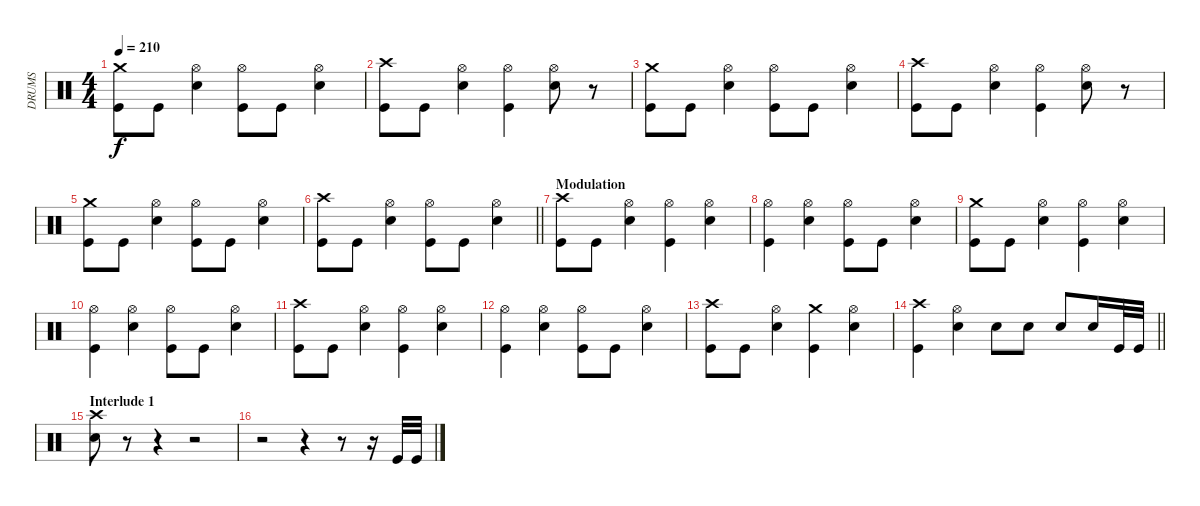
\track ("DRUMS" "DRUMS") {instrument percussion}
\staff {score}
\articulation defaults
\ts (4 4)
\tempo 210
\clef neutral
\ks c
("Crash medium (hit)" "Kick (hit)").8{dy f} "Kick (hit)".8 ("Hi-Hat (open)" "Snare (hit) 2").4 ("Hi-Hat (open)" "Kick (hit)").8 "Kick (hit)".8 ("Hi-Hat (open)" "Snare (hit) 2").4 |
("Crash high (hit)" "Kick (hit)").8 "Kick (hit)".8 ("Hi-Hat (open)" "Snare (hit) 2").4 ("Hi-Hat (open)" "Kick (hit)").4 ("Hi-Hat (open)" "Snare (hit) 2").8 r.8 |
("Crash medium (hit)" "Kick (hit)").8 "Kick (hit)".8 ("Hi-Hat (open)" "Snare (hit) 2").4 ("Hi-Hat (open)" "Kick (hit)").8 "Kick (hit)".8 ("Hi-Hat (open)" "Snare (hit) 2").4 |
("Crash high (hit)" "Kick (hit)").8 "Kick (hit)".8 ("Hi-Hat (open)" "Snare (hit) 2").4 ("Hi-Hat (open)" "Kick (hit)").4 ("Hi-Hat (open)" "Snare (hit) 2").8 r.8 |
("Crash medium (hit)" "Kick (hit)").8 "Kick (hit)".8 ("Hi-Hat (open)" "Snare (hit) 2").4 ("Hi-Hat (open)" "Kick (hit)").8 "Kick (hit)".8 ("Hi-Hat (open)" "Snare (hit) 2").4 |
\barLineRight lightlight
("Crash high (hit)" "Kick (hit)").8 "Kick (hit)".8 ("Hi-Hat (open)" "Snare (hit) 2").4 ("Hi-Hat (open)" "Kick (hit)").8 "Kick (hit)".8 ("Hi-Hat (open)" "Snare (hit) 2").4 |
\section ("" "Modulation")
("Crash high (hit)" "Kick (hit)").8 "Kick (hit)".8 ("Hi-Hat (open)" "Snare (hit) 2").4 ("Hi-Hat (open)" "Kick (hit)").4 ("Hi-Hat (open)" "Snare (hit) 2").4 |
("Hi-Hat (open)" "Kick (hit)").4 ("Hi-Hat (open)" "Snare (hit) 2").4 ("Hi-Hat (open)" "Kick (hit)").8 "Kick (hit)".8 ("Hi-Hat (open)" "Snare (hit) 2").4 |
("Crash medium (hit)" "Kick (hit)").8 "Kick (hit)".8 ("Hi-Hat (open)" "Snare (hit) 2").4 ("Hi-Hat (open)" "Kick (hit)").4 ("Hi-Hat (open)" "Snare (hit) 2").4 |
("Hi-Hat (open)" "Kick (hit)").4 ("Hi-Hat (open)" "Snare (hit) 2").4 ("Hi-Hat (open)" "Kick (hit)").8 "Kick (hit)".8 ("Hi-Hat (open)" "Snare (hit) 2").4 |
("Crash high (hit)" "Kick (hit)").8 "Kick (hit)".8 ("Hi-Hat (open)" "Snare (hit) 2").4 ("Hi-Hat (open)" "Kick (hit)").4 ("Hi-Hat (open)" "Snare (hit) 2").4 |
("Hi-Hat (open)" "Kick (hit)").4 ("Hi-Hat (open)" "Snare (hit) 2").4 ("Hi-Hat (open)" "Kick (hit)").8 "Kick (hit)".8 ("Hi-Hat (open)" "Snare (hit) 2").4 |
("Crash high (hit)" "Kick (hit)").8 "Kick (hit)".8 ("Hi-Hat (open)" "Snare (hit) 2").4 ("Crash medium (hit)" "Kick (hit)").4 ("Hi-Hat (open)" "Snare (hit) 2").4 |
\barLineRight lightlight
("Crash high (hit)" "Kick (hit)").4 ("Hi-Hat (open)" "Snare (hit) 2").4 "Snare (hit) 2".8 "Snare (hit) 2".8 "Snare (hit) 2".8 "Snare (hit) 2".16 "Kick (hit)".32 "Kick (hit)".32 |
\section ("" "Interlude 1")
("Crash high (hit)" "Snare (hit) 2").8 r.8 r.4 r.2 |
r.2 r.4 r.8 r.16 "Kick (hit)".32 "Kick (hit)".32
